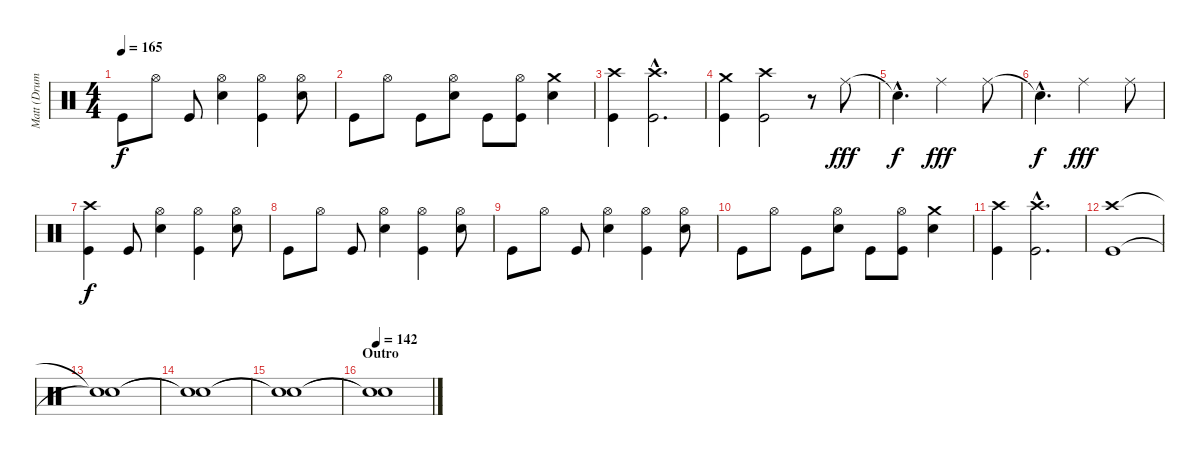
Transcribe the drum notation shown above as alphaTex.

\track ("Matt (Drums)" "Matt (Drum") {instrument percussion}
\staff {score}
\articulation defaults
\ts (4 4)
\tempo 165
\clef neutral
\ks c "Kick (hit)".8{dy f} "Hi-Hat (open)".8 "Kick (hit)".8
("Hi-Hat (open)" "Electric Snare (hit)").4 ("Hi-Hat (open)" "Kick (hit)").4 ("Hi-Hat (open)" "Electric Snare (hit)").8 |
"Kick (hit)".8 "Hi-Hat (open)".8 "Kick (hit)".8 ("Hi-Hat (open)" "Electric Snare (hit)").8 "Kick (hit)".8 ("Hi-Hat (open)" "Kick (hit)").8 ("Crash medium (hit)" "Electric Snare (hit)").4 |
("Crash high (hit)" "Kick (hit)").4 ("Crash high (hit)"{hac} "Kick (hit)"{hac}).2{d} |
("Crash medium (hit)" "Kick (hit)").4 ("Crash high (hit)" "Kick (hit)").2 r.8 "Ride (middle)".8{dy fff} |
"Snare (hit)"{hac t}.4{d dy f} "Ride (middle)".2{dy fff} "Ride (middle)".8 |
"Snare (hit)"{hac t}.4{d dy f} "Ride (middle)".2{dy fff} "Ride (middle)".8 |
("Crash high (hit)" "Kick (hit)").4{dy f} "Kick (hit)".8 ("Hi-Hat (open)" "Electric Snare (hit)").4 ("Hi-Hat (open)" "Kick (hit)").4 ("Hi-Hat (open)" "Electric Snare (hit)").8 |
"Kick (hit)".8 "Hi-Hat (open)".8 "Kick (hit)".8 ("Hi-Hat (open)" "Electric Snare (hit)").4 ("Hi-Hat (open)" "Kick (hit)").4 ("Hi-Hat (open)" "Electric Snare (hit)").8 |
"Kick (hit)".8 "Hi-Hat (open)".8 "Kick (hit)".8 ("Hi-Hat (open)" "Electric Snare (hit)").4 ("Hi-Hat (open)" "Kick (hit)").4 ("Hi-Hat (open)" "Electric Snare (hit)").8 |
"Kick (hit)".8 "Hi-Hat (open)".8 "Kick (hit)".8 ("Hi-Hat (open)" "Electric Snare (hit)").8 "Kick (hit)".8 ("Hi-Hat (open)" "Kick (hit)").8 ("Crash medium (hit)" "Electric Snare (hit)").4 |
("Crash high (hit)" "Kick (hit)").4 ("Crash high (hit)"{hac} "Kick (hit)"{hac}).2{d} |
("Crash high (hit)" "Kick (hit)").1 |
("Snare (hit)"{t} "Snare (hit)"{t}).1 |
("Snare (hit)"{t} "Snare (hit)"{t}).1 |
("Snare (hit)"{t} "Snare (hit)"{t}).1 |
\section ("" "Outro")
\tempo 142
("Snare (hit)"{t} "Snare (hit)"{t}).1
